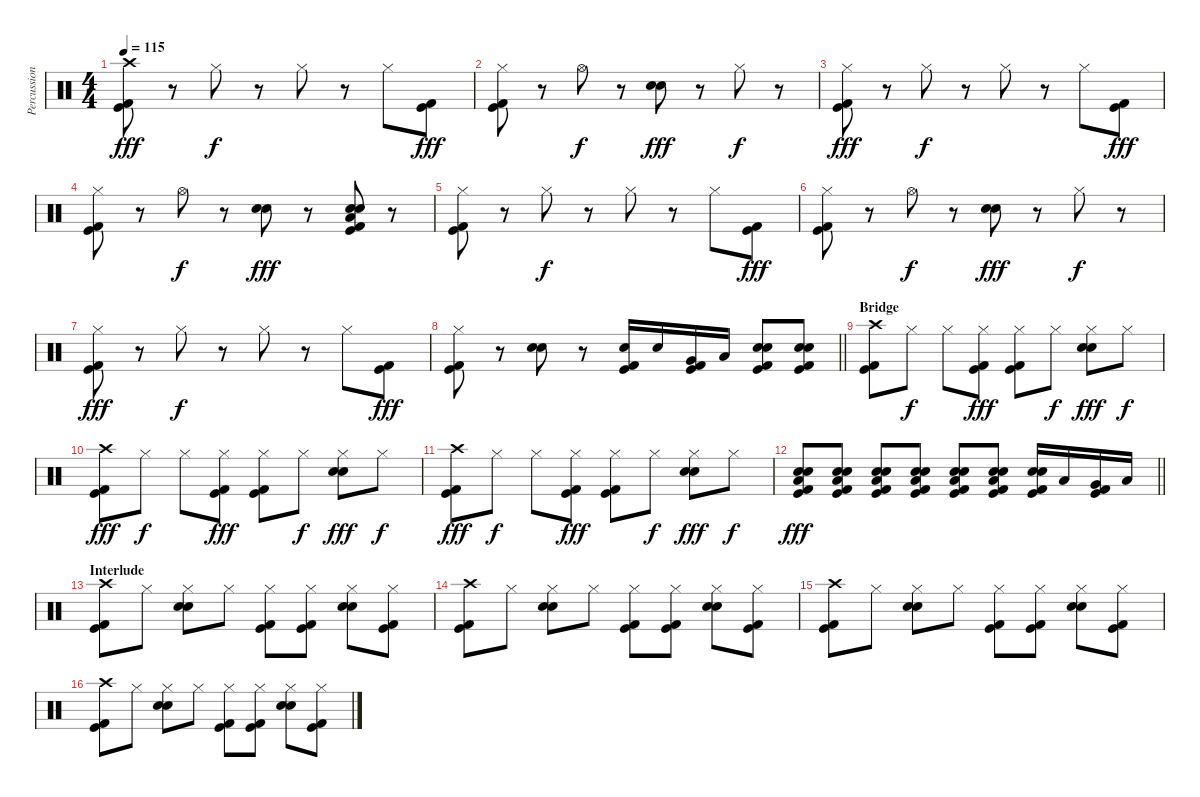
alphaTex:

\track ("Percussion" "Percussion") {instrument percussion}
\staff {score}
\articulation defaults
\ts (4 4)
\tempo 115
\clef neutral
\ks c
("Crash high (hit)" "Kick (hit) 2" "Kick (hit)").8{dy fff} r.8 "Hi-Hat (closed)".8{dy f} r.8 "Hi-Hat (closed)".8 r.8 "Hi-Hat (closed)".8 ("Kick (hit) 2" "Kick (hit)").8{dy fff} |
("Hi-Hat (closed)" "Kick (hit) 2" "Kick (hit)").8 r.8 "Hi-Hat (open)".8{dy f} r.8 ("Electric Snare (hit)" "Snare (hit) 2").8{dy fff} r.8 "Hi-Hat (closed)".8{dy f} r.8 |
("Hi-Hat (closed)" "Kick (hit) 2" "Kick (hit)").8{dy fff} r.8 "Hi-Hat (closed)".8{dy f} r.8 "Hi-Hat (closed)".8 r.8 "Hi-Hat (closed)".8 ("Kick (hit) 2" "Kick (hit)").8{dy fff} |
("Hi-Hat (closed)" "Kick (hit) 2" "Kick (hit)").8 r.8 "Hi-Hat (open)".8{dy f} r.8 ("Electric Snare (hit)" "Snare (hit) 2").8{dy fff} r.8 ("Electric Snare (hit)" "Snare (hit) 2" "Low Floor Tom (hit)" "Kick (hit) 2" "Kick (hit)").8 r.8 |
("Hi-Hat (closed)" "Kick (hit) 2" "Kick (hit)").8 r.8 "Hi-Hat (closed)".8{dy f} r.8 "Hi-Hat (closed)".8 r.8 "Hi-Hat (closed)".8 ("Kick (hit) 2" "Kick (hit)").8{dy fff} |
("Hi-Hat (closed)" "Kick (hit) 2" "Kick (hit)").8 r.8 "Hi-Hat (open)".8{dy f} r.8 ("Electric Snare (hit)" "Snare (hit) 2").8{dy fff} r.8 "Hi-Hat (closed)".8{dy f} r.8 |
("Hi-Hat (closed)" "Kick (hit) 2" "Kick (hit)").8{dy fff} r.8 "Hi-Hat (closed)".8{dy f} r.8 "Hi-Hat (closed)".8 r.8 "Hi-Hat (closed)".8 ("Kick (hit) 2" "Kick (hit)").8{dy fff} |
\barLineRight lightlight
("Hi-Hat (closed)" "Kick (hit) 2" "Kick (hit)").8 r.8 ("Electric Snare (hit)" "Snare (hit) 2").8 r.8 ("Snare (hit) 2" "Kick (hit) 2" "Kick (hit)").16 "Snare (hit) 2".16 ("Very Low Tom (hit)" "Kick (hit) 2" "Kick (hit)").16 "Low Floor Tom (hit)".16 ("Electric Snare (hit)" "Snare (hit) 2" "Kick (hit) 2" "Kick (hit)").8 ("Electric Snare (hit)" "Snare (hit) 2" "Kick (hit) 2" "Kick (hit)").8 |
\section ("" "Bridge")
("Crash high (hit)" "Kick (hit) 2" "Kick (hit)").8 "Hi-Hat (closed)".8{dy f} "Hi-Hat (closed)".8 ("Hi-Hat (closed)" "Kick (hit) 2" "Kick (hit)").8{dy fff} ("Hi-Hat (closed)" "Kick (hit) 2" "Kick (hit)").8 "Hi-Hat (closed)".8{dy f} ("Hi-Hat (closed)" "Electric Snare (hit)" "Snare (hit) 2").8{dy fff} "Hi-Hat (closed)".8{dy f} |
("Crash high (hit)" "Kick (hit) 2" "Kick (hit)").8{dy fff} "Hi-Hat (closed)".8{dy f} "Hi-Hat (closed)".8 ("Hi-Hat (closed)" "Kick (hit) 2" "Kick (hit)").8{dy fff} ("Hi-Hat (closed)" "Kick (hit) 2" "Kick (hit)").8 "Hi-Hat (closed)".8{dy f} ("Hi-Hat (closed)" "Electric Snare (hit)" "Snare (hit) 2").8{dy fff} "Hi-Hat (closed)".8{dy f} |
("Crash high (hit)" "Kick (hit) 2" "Kick (hit)").8{dy fff} "Hi-Hat (closed)".8{dy f} "Hi-Hat (closed)".8 ("Hi-Hat (closed)" "Kick (hit) 2" "Kick (hit)").8{dy fff} ("Hi-Hat (closed)" "Kick (hit) 2" "Kick (hit)").8 "Hi-Hat (closed)".8{dy f} ("Hi-Hat (closed)" "Electric Snare (hit)" "Snare (hit) 2").8{dy fff} "Hi-Hat (closed)".8{dy f} |
\barLineRight lightlight
("Low Floor Tom (hit)" "Electric Snare (hit)" "Snare (hit) 2" "Kick (hit) 2" "Kick (hit)").8{dy fff} ("Low Floor Tom (hit)" "Electric Snare (hit)" "Snare (hit) 2" "Kick (hit) 2" "Kick (hit)").8 ("Low Floor Tom (hit)" "Electric Snare (hit)" "Snare (hit) 2" "Kick (hit) 2" "Kick (hit)").8 ("Low Floor Tom (hit)" "Electric Snare (hit)" "Snare (hit) 2" "Kick (hit) 2" "Kick (hit)").8 ("Low Floor Tom (hit)" "Electric Snare (hit)" "Snare (hit) 2" "Kick (hit) 2" "Kick (hit)").8 ("Low Floor Tom (hit)" "Electric Snare (hit)" "Snare (hit) 2" "Kick (hit) 2" "Kick (hit)").8 ("Electric Snare (hit)" "Snare (hit) 2" "Kick (hit) 2" "Kick (hit)").16 "Low Tom (hit)".16 ("Very Low Tom (hit)" "Kick (hit) 2" "Kick (hit)").16 "Low Floor Tom (hit)".16 |
\section ("" "Interlude")
("Crash high (hit)" "Kick (hit) 2" "Kick (hit)").8 "Hi-Hat (closed)".8 ("Hi-Hat (closed)" "Electric Snare (hit)" "Snare (hit) 2").8 "Hi-Hat (closed)".8 ("Hi-Hat (closed)" "Kick (hit) 2" "Kick (hit)").8 ("Hi-Hat (closed)" "Kick (hit) 2" "Kick (hit)").8 ("Hi-Hat (closed)" "Electric Snare (hit)" "Snare (hit) 2").8 ("Hi-Hat (closed)" "Kick (hit) 2" "Kick (hit)").8 |
("Crash high (hit)" "Kick (hit) 2" "Kick (hit)").8 "Hi-Hat (closed)".8 ("Hi-Hat (closed)" "Electric Snare (hit)" "Snare (hit) 2").8 "Hi-Hat (closed)".8 ("Hi-Hat (closed)" "Kick (hit) 2" "Kick (hit)").8 ("Hi-Hat (closed)" "Kick (hit) 2" "Kick (hit)").8 ("Hi-Hat (closed)" "Electric Snare (hit)" "Snare (hit) 2").8 ("Hi-Hat (closed)" "Kick (hit) 2" "Kick (hit)").8 |
("Crash high (hit)" "Kick (hit) 2" "Kick (hit)").8 "Hi-Hat (closed)".8 ("Hi-Hat (closed)" "Electric Snare (hit)" "Snare (hit) 2").8 "Hi-Hat (closed)".8 ("Hi-Hat (closed)" "Kick (hit) 2" "Kick (hit)").8 ("Hi-Hat (closed)" "Kick (hit) 2" "Kick (hit)").8 ("Hi-Hat (closed)" "Electric Snare (hit)" "Snare (hit) 2").8 ("Hi-Hat (closed)" "Kick (hit) 2" "Kick (hit)").8 |
("Crash high (hit)" "Kick (hit) 2" "Kick (hit)").8 "Hi-Hat (closed)".8 ("Hi-Hat (closed)" "Electric Snare (hit)" "Snare (hit) 2").8 "Hi-Hat (closed)".8 ("Hi-Hat (closed)" "Kick (hit) 2" "Kick (hit)").8 ("Hi-Hat (closed)" "Kick (hit) 2" "Kick (hit)").8 ("Hi-Hat (closed)" "Electric Snare (hit)" "Snare (hit) 2").8 ("Hi-Hat (closed)" "Kick (hit) 2" "Kick (hit)").8
